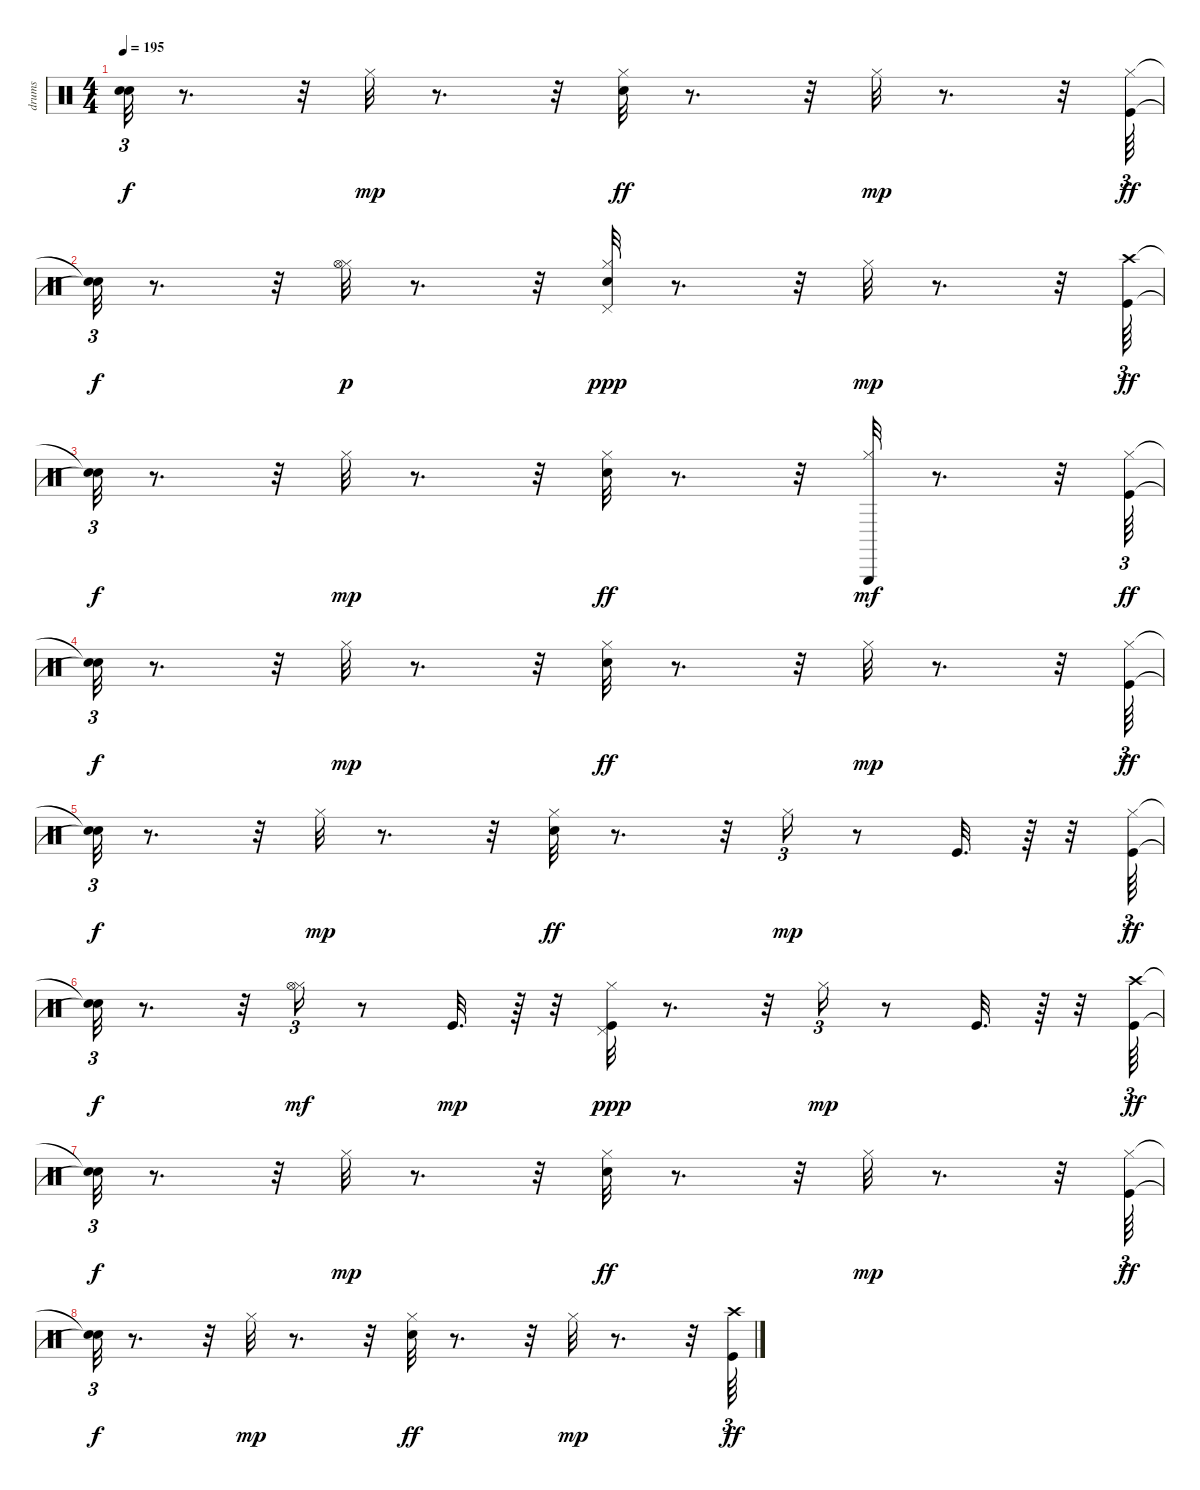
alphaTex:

\track ("drums" "drums") {instrument percussion}
\staff {score}
\articulation defaults
\ts (4 4)
\tempo 195
\clef neutral
\ks c
("Snare (hit)"{t} "Snare (hit)"{t}).32{tu (3 2) dy f} r.8{d} r.32 "Hi-Hat (closed)".32{dy mp} r.8{d} r.32 ("Snare (hit) 2" "Hi-Hat (closed)").32{dy ff} r.8{d} r.32 "Hi-Hat (closed)".32{dy mp} r.8{d} r.32 ("Kick (hit)" "Hi-Hat (closed)").64{tu (3 2) dy ff} |
("Snare (hit)"{t} "Snare (hit)"{t}).32{tu (3 2) dy f} r.8{d} r.32 ("Hi-Hat (closed)" "Hi-Hat (open)").32{dy p} r.8{d} r.32 ("Hi-Hat (closed)" "Snare (hit) 2" "Pedal Hi-Hat (hit)").32{dy ppp} r.8{d} r.32 "Hi-Hat (closed)".32{dy mp} r.8{d} r.32 ("Crash high (hit)" "Kick (hit)").64{tu (3 2) dy ff} |
("Snare (hit)"{t} "Snare (hit)"{t}).32{tu (3 2) dy f} r.8{d} r.32 "Hi-Hat (closed)".32{dy mp} r.8{d} r.32 ("Hi-Hat (closed)" "Snare (hit) 2").32{dy ff} r.8{d} r.32 ("Hi-Hat (closed)" "Triangle (hit)").32{dy mf} r.8{d} r.32 ("Kick (hit)" "Hi-Hat (closed)").64{tu (3 2) dy ff} |
("Snare (hit)"{t} "Snare (hit)"{t}).32{tu (3 2) dy f} r.8{d} r.32 "Hi-Hat (closed)".32{dy mp} r.8{d} r.32 ("Hi-Hat (closed)" "Snare (hit) 2").32{dy ff} r.8{d} r.32 "Hi-Hat (closed)".32{dy mp} r.8{d} r.32 ("Kick (hit)" "Hi-Hat (closed)").64{tu (3 2) dy ff} |
("Snare (hit)"{t} "Snare (hit)"{t}).32{tu (3 2) dy f} r.8{d} r.32 "Hi-Hat (closed)".32{dy mp} r.8{d} r.32 ("Hi-Hat (closed)" "Snare (hit) 2").32{dy ff} r.8{d} r.32 "Hi-Hat (closed)".16{tu (3 2) dy mp} r.8 "Kick (hit)".32{d} r.64 r.32 ("Kick (hit)" "Hi-Hat (closed)").64{tu (3 2) dy ff} |
("Snare (hit)"{t} "Snare (hit)"{t}).32{tu (3 2) dy f} r.8{d} r.32 ("Hi-Hat (closed)" "Hi-Hat (open)").16{tu (3 2) dy mf} r.8 "Kick (hit)".32{d dy mp} r.64 r.32 ("Hi-Hat (closed)" "Kick (hit)" "Pedal Hi-Hat (hit)").32{dy ppp} r.8{d} r.32 "Hi-Hat (closed)".16{tu (3 2) dy mp} r.8 "Kick (hit)".32{d} r.64 r.32 ("Crash high (hit)" "Kick (hit)").64{tu (3 2) dy ff} |
("Snare (hit)"{t} "Snare (hit)"{t}).32{tu (3 2) dy f} r.8{d} r.32 "Hi-Hat (closed)".32{dy mp} r.8{d} r.32 ("Snare (hit) 2" "Hi-Hat (closed)").32{dy ff} r.8{d} r.32 "Hi-Hat (closed)".32{dy mp} r.8{d} r.32 ("Hi-Hat (closed)" "Kick (hit)").64{tu (3 2) dy ff} |
("Snare (hit)"{t} "Snare (hit)"{t}).32{tu (3 2) dy f} r.8{d} r.32 "Hi-Hat (closed)".32{dy mp} r.8{d} r.32 ("Hi-Hat (closed)" "Snare (hit) 2").32{dy ff} r.8{d} r.32 "Hi-Hat (closed)".32{dy mp} r.8{d} r.32 ("Kick (hit)" "Crash high (hit)").64{tu (3 2) dy ff}
